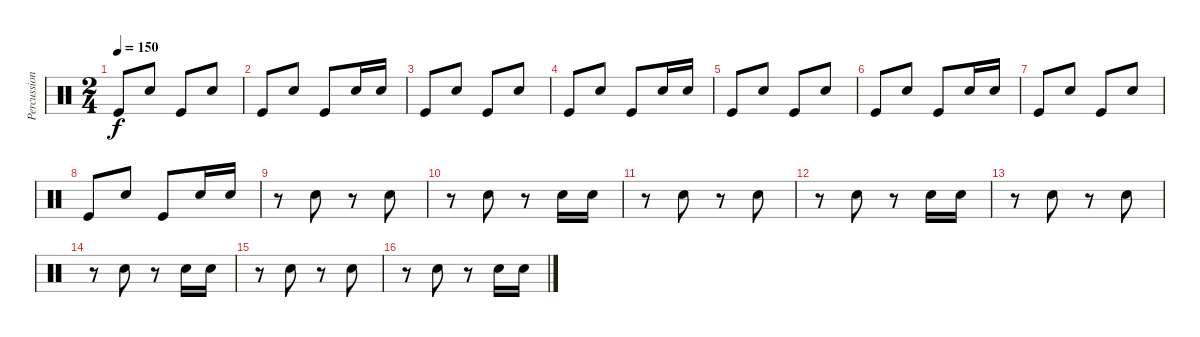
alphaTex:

\track ("Percussions" "Percussion") {instrument percussion}
\staff {score}
\articulation defaults
\ts (2 4)
\tempo 150
\clef neutral
\ks c "Kick (hit)".8{dy f} "Electric Snare (hit)".8 "Kick (hit)".8 "Electric Snare (hit)".8
|
"Kick (hit)".8 "Electric Snare (hit)".8 "Kick (hit)".8 "Electric Snare (hit)".16 "Electric Snare (hit)".16 |
"Kick (hit)".8 "Electric Snare (hit)".8 "Kick (hit)".8 "Electric Snare (hit)".8 |
"Kick (hit)".8 "Electric Snare (hit)".8 "Kick (hit)".8 "Electric Snare (hit)".16 "Electric Snare (hit)".16 |
"Kick (hit)".8 "Electric Snare (hit)".8 "Kick (hit)".8 "Electric Snare (hit)".8 |
"Kick (hit)".8 "Electric Snare (hit)".8 "Kick (hit)".8 "Electric Snare (hit)".16 "Electric Snare (hit)".16 |
"Kick (hit)".8 "Electric Snare (hit)".8 "Kick (hit)".8 "Electric Snare (hit)".8 |
"Kick (hit)".8 "Electric Snare (hit)".8 "Kick (hit)".8 "Electric Snare (hit)".16 "Electric Snare (hit)".16 |
r.8 "Electric Snare (hit)".8 r.8 "Electric Snare (hit)".8 |
r.8 "Electric Snare (hit)".8 r.8 "Electric Snare (hit)".16 "Electric Snare (hit)".16 |
r.8 "Electric Snare (hit)".8 r.8 "Electric Snare (hit)".8 |
r.8 "Electric Snare (hit)".8 r.8 "Electric Snare (hit)".16 "Electric Snare (hit)".16 |
r.8 "Electric Snare (hit)".8 r.8 "Electric Snare (hit)".8 |
r.8 "Electric Snare (hit)".8 r.8 "Electric Snare (hit)".16 "Electric Snare (hit)".16 |
r.8 "Electric Snare (hit)".8 r.8 "Electric Snare (hit)".8 |
r.8 "Electric Snare (hit)".8 r.8 "Electric Snare (hit)".16 "Electric Snare (hit)".16
